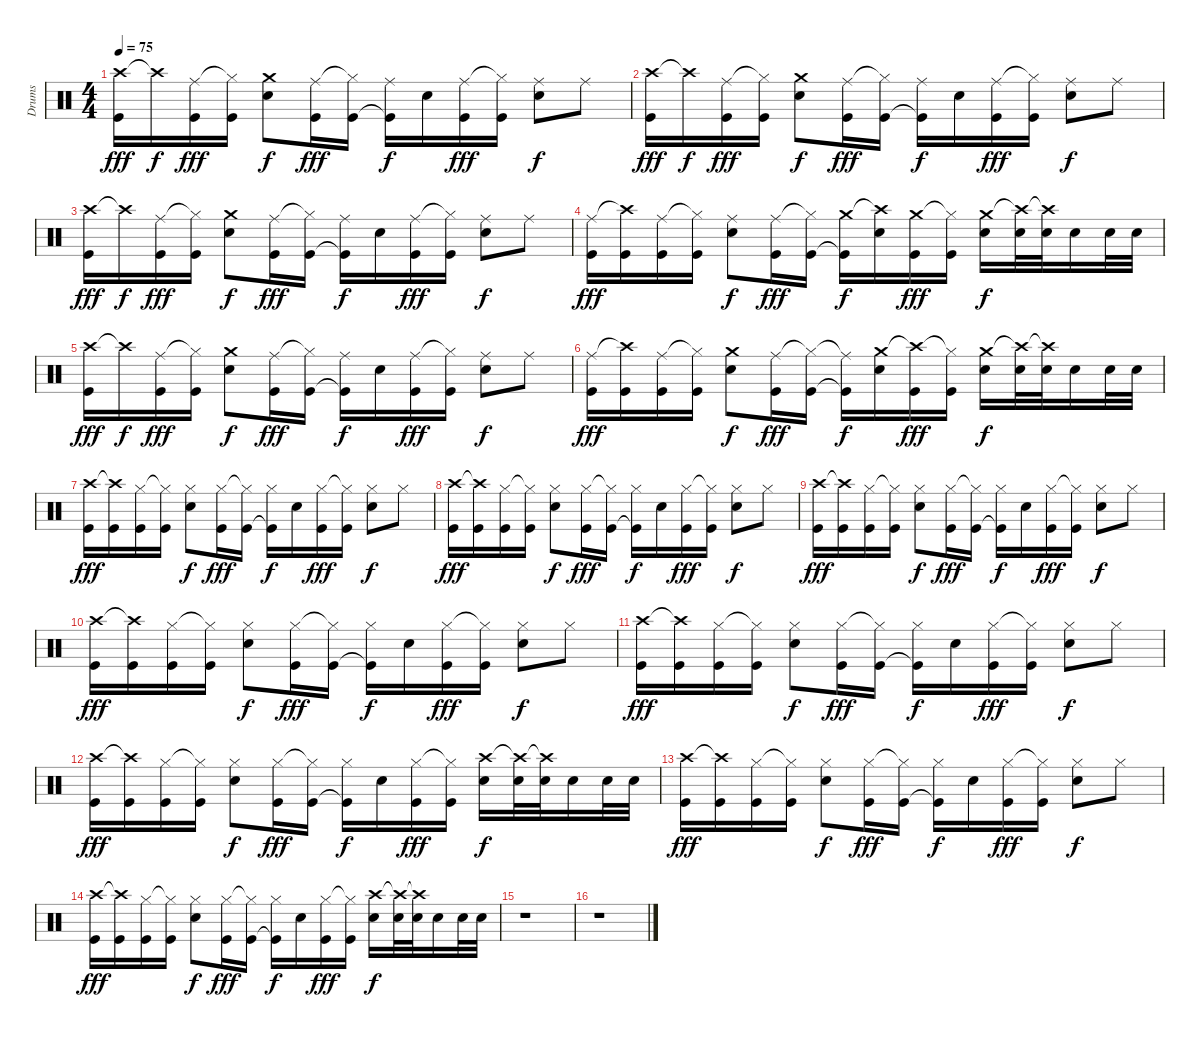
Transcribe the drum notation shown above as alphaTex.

\track ("Drums" "Drums") {instrument percussion}
\staff {score}
\articulation defaults
\ts (4 4)
\tempo 75
\clef neutral
\ks c
("Crash high (hit)" "Kick (hit)").16{dy fff} "Crash high (hit)"{t}.16{dy f} ("Ride (middle)" "Kick (hit)").16{dy fff} ("Hi-Hat (closed)"{t} "Kick (hit)").16 ("Crash medium (hit)" "Snare (hit) 2").8{dy f} ("Ride (middle)" "Kick (hit)").16{dy fff} ("Hi-Hat (closed)"{t} "Kick (hit)").16 ("Ride (middle)" "Kick (hit)"{t}).16{dy f} "Snare (hit) 2".16 ("Ride (middle)" "Kick (hit)").16{dy fff} ("Hi-Hat (closed)"{t} "Kick (hit)").16 ("Ride (middle)" "Snare (hit) 2").8{dy f} "Ride (middle)".8 |
("Crash high (hit)" "Kick (hit)").16{dy fff} "Crash high (hit)"{t}.16{dy f} ("Ride (middle)" "Kick (hit)").16{dy fff} ("Hi-Hat (closed)"{t} "Kick (hit)").16 ("Crash medium (hit)" "Snare (hit) 2").8{dy f} ("Ride (middle)" "Kick (hit)").16{dy fff} ("Hi-Hat (closed)"{t} "Kick (hit)").16 ("Ride (middle)" "Kick (hit)"{t}).16{dy f} "Snare (hit) 2".16 ("Ride (middle)" "Kick (hit)").16{dy fff} ("Hi-Hat (closed)"{t} "Kick (hit)").16 ("Ride (middle)" "Snare (hit) 2").8{dy f} "Ride (middle)".8 |
("Crash high (hit)" "Kick (hit)").16{dy fff} "Crash high (hit)"{t}.16{dy f} ("Ride (middle)" "Kick (hit)").16{dy fff} ("Hi-Hat (closed)"{t} "Kick (hit)").16 ("Crash medium (hit)" "Snare (hit) 2").8{dy f} ("Ride (middle)" "Kick (hit)").16{dy fff} ("Hi-Hat (closed)"{t} "Kick (hit)").16 ("Ride (middle)" "Kick (hit)"{t}).16{dy f} "Snare (hit) 2".16 ("Ride (middle)" "Kick (hit)").16{dy fff} ("Hi-Hat (closed)"{t} "Kick (hit)").16 ("Ride (middle)" "Snare (hit) 2").8{dy f} "Ride (middle)".8 |
("Ride (middle)" "Kick (hit)").16{dy fff} ("Crash high (hit)"{t} "Kick (hit)").16 ("Ride (middle)" "Kick (hit)").16 ("Hi-Hat (closed)"{t} "Kick (hit)").16 ("Ride (middle)" "Snare (hit) 2").8{dy f} ("Ride (middle)" "Kick (hit)").16{dy fff} ("Hi-Hat (closed)"{t} "Kick (hit)").16 ("Crash medium (hit)" "Kick (hit)"{t}).16{dy f} ("Crash high (hit)"{t} "Snare (hit) 2").16 ("Crash medium (hit)" "Kick (hit)").16{dy fff} ("Hi-Hat (closed)"{t} "Kick (hit)").16 ("Crash medium (hit)" "Snare (hit) 2").16{dy f} ("Crash high (hit)"{t} "Snare (hit) 2").32 ("Crash high (hit)"{t} "Snare (hit) 2").32 "Snare (hit) 2".16 "Snare (hit) 2".32 "Snare (hit) 2".32 |
("Crash high (hit)" "Kick (hit)").16{dy fff} "Crash high (hit)"{t}.16{dy f} ("Ride (middle)" "Kick (hit)").16{dy fff} ("Hi-Hat (closed)"{t} "Kick (hit)").16 ("Crash medium (hit)" "Snare (hit) 2").8{dy f} ("Ride (middle)" "Kick (hit)").16{dy fff} ("Hi-Hat (closed)"{t} "Kick (hit)").16 ("Ride (middle)" "Kick (hit)"{t}).16{dy f} "Snare (hit) 2".16 ("Ride (middle)" "Kick (hit)").16{dy fff} ("Hi-Hat (closed)"{t} "Kick (hit)").16 ("Ride (middle)" "Snare (hit) 2").8{dy f} "Ride (middle)".8 |
("Ride (middle)" "Kick (hit)").16{dy fff} ("Crash high (hit)"{t} "Kick (hit)").16 ("Ride (middle)" "Kick (hit)").16 ("Hi-Hat (closed)"{t} "Kick (hit)").16 ("Crash medium (hit)" "Snare (hit) 2").8{dy f} ("Ride (middle)" "Kick (hit)").16{dy fff} ("Hi-Hat (closed)"{t} "Kick (hit)").16 ("Ride (middle)"{t} "Kick (hit)"{t}).16{dy f} ("Crash medium (hit)" "Snare (hit) 2").16 ("Crash high (hit)"{t} "Kick (hit)").16{dy fff} ("Hi-Hat (closed)"{t} "Kick (hit)").16 ("Crash medium (hit)" "Snare (hit) 2").16{dy f} ("Crash high (hit)"{t} "Snare (hit) 2").32 ("Crash high (hit)"{t} "Snare (hit) 2").32 "Snare (hit) 2".16 "Snare (hit) 2".32 "Snare (hit) 2".32 |
("Crash high (hit)" "Kick (hit)").16{dy fff} ("Crash high (hit)"{t} "Kick (hit)").16 ("Hi-Hat (closed)" "Kick (hit)").16 ("Hi-Hat (closed)"{t} "Kick (hit)").16 ("Hi-Hat (closed)" "Snare (hit) 2").8{dy f} ("Hi-Hat (closed)" "Kick (hit)").16{dy fff} ("Hi-Hat (closed)"{t} "Kick (hit)").16 ("Hi-Hat (closed)" "Kick (hit)"{t}).16{dy f} "Snare (hit) 2".16 ("Hi-Hat (closed)" "Kick (hit)").16{dy fff} ("Hi-Hat (closed)"{t} "Kick (hit)").16 ("Hi-Hat (closed)" "Snare (hit) 2").8{dy f} "Hi-Hat (closed)".8 |
("Crash high (hit)" "Kick (hit)").16{dy fff} ("Crash high (hit)"{t} "Kick (hit)").16 ("Hi-Hat (closed)" "Kick (hit)").16 ("Hi-Hat (closed)"{t} "Kick (hit)").16 ("Hi-Hat (closed)" "Snare (hit) 2").8{dy f} ("Hi-Hat (closed)" "Kick (hit)").16{dy fff} ("Hi-Hat (closed)"{t} "Kick (hit)").16 ("Hi-Hat (closed)" "Kick (hit)"{t}).16{dy f} "Snare (hit) 2".16 ("Hi-Hat (closed)" "Kick (hit)").16{dy fff} ("Hi-Hat (closed)"{t} "Kick (hit)").16 ("Hi-Hat (closed)" "Snare (hit) 2").8{dy f} "Hi-Hat (closed)".8 |
("Crash high (hit)" "Kick (hit)").16{dy fff} ("Crash high (hit)"{t} "Kick (hit)").16 ("Hi-Hat (closed)" "Kick (hit)").16 ("Hi-Hat (closed)"{t} "Kick (hit)").16 ("Hi-Hat (closed)" "Snare (hit) 2").8{dy f} ("Hi-Hat (closed)" "Kick (hit)").16{dy fff} ("Hi-Hat (closed)"{t} "Kick (hit)").16 ("Hi-Hat (closed)" "Kick (hit)"{t}).16{dy f} "Snare (hit) 2".16 ("Hi-Hat (closed)" "Kick (hit)").16{dy fff} ("Hi-Hat (closed)"{t} "Kick (hit)").16 ("Hi-Hat (closed)" "Snare (hit) 2").8{dy f} "Hi-Hat (closed)".8 |
("Crash high (hit)" "Kick (hit)").16{dy fff} ("Crash high (hit)"{t} "Kick (hit)").16 ("Hi-Hat (closed)" "Kick (hit)").16 ("Hi-Hat (closed)"{t} "Kick (hit)").16 ("Hi-Hat (closed)" "Snare (hit) 2").8{dy f} ("Hi-Hat (closed)" "Kick (hit)").16{dy fff} ("Hi-Hat (closed)"{t} "Kick (hit)").16 ("Hi-Hat (closed)" "Kick (hit)"{t}).16{dy f} "Snare (hit) 2".16 ("Hi-Hat (closed)" "Kick (hit)").16{dy fff} ("Hi-Hat (closed)"{t} "Kick (hit)").16 ("Hi-Hat (closed)" "Snare (hit) 2").8{dy f} "Hi-Hat (closed)".8 |
("Crash high (hit)" "Kick (hit)").16{dy fff} ("Crash high (hit)"{t} "Kick (hit)").16 ("Hi-Hat (closed)" "Kick (hit)").16 ("Hi-Hat (closed)"{t} "Kick (hit)").16 ("Hi-Hat (closed)" "Snare (hit) 2").8{dy f} ("Hi-Hat (closed)" "Kick (hit)").16{dy fff} ("Hi-Hat (closed)"{t} "Kick (hit)").16 ("Hi-Hat (closed)" "Kick (hit)"{t}).16{dy f} "Snare (hit) 2".16 ("Hi-Hat (closed)" "Kick (hit)").16{dy fff} ("Hi-Hat (closed)"{t} "Kick (hit)").16 ("Hi-Hat (closed)" "Snare (hit) 2").8{dy f} "Hi-Hat (closed)".8 |
("Crash high (hit)" "Kick (hit)").16{dy fff} ("Crash high (hit)"{t} "Kick (hit)").16 ("Hi-Hat (closed)" "Kick (hit)").16 ("Hi-Hat (closed)"{t} "Kick (hit)").16 ("Hi-Hat (closed)" "Snare (hit) 2").8{dy f} ("Hi-Hat (closed)" "Kick (hit)").16{dy fff} ("Hi-Hat (closed)"{t} "Kick (hit)").16 ("Hi-Hat (closed)" "Kick (hit)"{t}).16{dy f} "Snare (hit) 2".16 ("Hi-Hat (closed)" "Kick (hit)").16{dy fff} ("Hi-Hat (closed)"{t} "Kick (hit)").16 ("Crash high (hit)" "Snare (hit) 2").16{dy f} ("Crash high (hit)"{t} "Snare (hit) 2").32 ("Crash high (hit)"{t} "Snare (hit) 2").32 "Snare (hit) 2".16 "Snare (hit) 2".32 "Snare (hit) 2".32 |
("Crash high (hit)" "Kick (hit)").16{dy fff} ("Crash high (hit)"{t} "Kick (hit)").16 ("Hi-Hat (closed)" "Kick (hit)").16 ("Hi-Hat (closed)"{t} "Kick (hit)").16 ("Hi-Hat (closed)" "Snare (hit) 2").8{dy f} ("Hi-Hat (closed)" "Kick (hit)").16{dy fff} ("Hi-Hat (closed)"{t} "Kick (hit)").16 ("Hi-Hat (closed)" "Kick (hit)"{t}).16{dy f} "Snare (hit) 2".16 ("Hi-Hat (closed)" "Kick (hit)").16{dy fff} ("Hi-Hat (closed)"{t} "Kick (hit)").16 ("Hi-Hat (closed)" "Snare (hit) 2").8{dy f} "Hi-Hat (closed)".8 |
("Crash high (hit)" "Kick (hit)").16{dy fff} ("Crash high (hit)"{t} "Kick (hit)").16 ("Hi-Hat (closed)" "Kick (hit)").16 ("Hi-Hat (closed)"{t} "Kick (hit)").16 ("Hi-Hat (closed)" "Snare (hit) 2").8{dy f} ("Hi-Hat (closed)" "Kick (hit)").16{dy fff} ("Hi-Hat (closed)"{t} "Kick (hit)").16 ("Hi-Hat (closed)" "Kick (hit)"{t}).16{dy f} "Snare (hit) 2".16 ("Hi-Hat (closed)" "Kick (hit)").16{dy fff} ("Hi-Hat (closed)"{t} "Kick (hit)").16 ("Crash high (hit)" "Snare (hit) 2").16{dy f} ("Crash high (hit)"{t} "Snare (hit) 2").32 ("Crash high (hit)"{t} "Snare (hit) 2").32 "Snare (hit) 2".16 "Snare (hit) 2".32 "Snare (hit) 2".32 |
r.1 |
r.1
